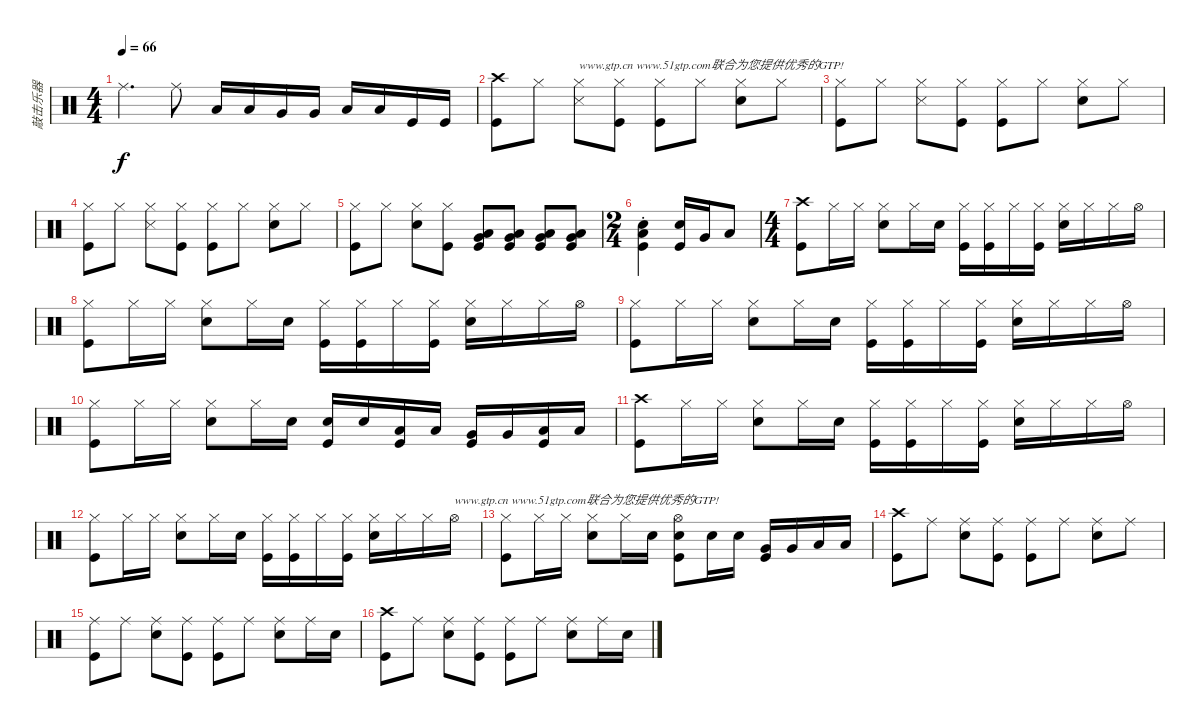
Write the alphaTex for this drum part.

\track ("敲击乐器" "敲击乐器") {instrument percussion}
\staff {score}
\articulation defaults
\ts (4 4)
\tempo 66
\clef neutral
\ks c "Ride (middle)".4{d dy f} "Ride (middle)".8 "Low Tom (hit)".16 "Low Tom (hit)".16 "Very Low Tom (hit)".16 "Very Low Tom (hit)".16 "Low Floor Tom (hit)".16 "Low Floor Tom (hit)".16 "Kick (hit)".16 "Kick (hit)".16
|
("Kick (hit)" "Crash high (hit)").8 "Hi-Hat (closed)".8 ("Snare (side stick) 3" "Hi-Hat (closed)").8{txt "www.gtp.cn www.51gtp.com联合为您提供优秀的GTP!"} ("Kick (hit)" "Hi-Hat (closed)").8 ("Kick (hit)" "Hi-Hat (closed)").8 "Hi-Hat (closed)".8 ("Snare (hit) 2" "Hi-Hat (closed)").8 "Hi-Hat (closed)".8 |
("Kick (hit)" "Hi-Hat (closed)").8 "Hi-Hat (closed)".8 ("Snare (side stick) 3" "Hi-Hat (closed)").8 ("Kick (hit)" "Hi-Hat (closed)").8 ("Kick (hit)" "Hi-Hat (closed)").8 "Hi-Hat (closed)".8 ("Snare (hit) 2" "Hi-Hat (closed)").8 "Hi-Hat (closed)".8 |
("Kick (hit)" "Hi-Hat (closed)").8 "Hi-Hat (closed)".8 ("Snare (side stick) 3" "Hi-Hat (closed)").8 ("Kick (hit)" "Hi-Hat (closed)").8 ("Kick (hit)" "Hi-Hat (closed)").8 "Hi-Hat (closed)".8 ("Snare (hit) 2" "Hi-Hat (closed)").8 "Hi-Hat (closed)".8 |
("Kick (hit)" "Hi-Hat (closed)").8 "Hi-Hat (closed)".8 ("Snare (hit) 2" "Hi-Hat (closed)").8 ("Kick (hit)" "Hi-Hat (closed)").8 ("Very Low Tom (hit)" "Low Floor Tom (hit)" "Kick (hit)").8 ("Very Low Tom (hit)" "Low Floor Tom (hit)" "Kick (hit)").8 ("Very Low Tom (hit)" "Low Floor Tom (hit)" "Kick (hit)").8 ("Very Low Tom (hit)" "Low Floor Tom (hit)" "Kick (hit)").8 |
\ts (2 4)
("Snare (hit) 2"{st} "Low Floor Tom (hit)"{st} "Kick (hit)"{st}).4 ("Snare (hit) 2" "Kick (hit)").16 "Very Low Tom (hit)".16 "Low Floor Tom (hit)".8 |
\ts (4 4)
("Crash high (hit)" "Kick (hit)").8 "Hi-Hat (closed)".16 "Hi-Hat (closed)".16 ("Snare (hit) 2" "Hi-Hat (closed)").8 "Hi-Hat (closed)".16 "Snare (hit) 2".16 ("Kick (hit)" "Hi-Hat (closed)").16 ("Kick (hit)" "Hi-Hat (closed)").16 "Hi-Hat (closed)".16 ("Kick (hit)" "Hi-Hat (closed)").16 ("Snare (hit) 2" "Hi-Hat (closed)").16 "Hi-Hat (closed)".16 "Hi-Hat (closed)".16 "Hi-Hat (open)".16 |
("Hi-Hat (closed)" "Kick (hit)").8 "Hi-Hat (closed)".16 "Hi-Hat (closed)".16 ("Snare (hit) 2" "Hi-Hat (closed)").8 "Hi-Hat (closed)".16 "Snare (hit) 2".16 ("Kick (hit)" "Hi-Hat (closed)").16 ("Kick (hit)" "Hi-Hat (closed)").16 "Hi-Hat (closed)".16 ("Kick (hit)" "Hi-Hat (closed)").16 ("Snare (hit) 2" "Hi-Hat (closed)").16 "Hi-Hat (closed)".16 "Hi-Hat (closed)".16 "Hi-Hat (open)".16 |
("Hi-Hat (closed)" "Kick (hit)").8 "Hi-Hat (closed)".16 "Hi-Hat (closed)".16 ("Snare (hit) 2" "Hi-Hat (closed)").8 "Hi-Hat (closed)".16 "Snare (hit) 2".16 ("Kick (hit)" "Hi-Hat (closed)").16 ("Kick (hit)" "Hi-Hat (closed)").16 "Hi-Hat (closed)".16 ("Kick (hit)" "Hi-Hat (closed)").16 ("Snare (hit) 2" "Hi-Hat (closed)").16 "Hi-Hat (closed)".16 "Hi-Hat (closed)".16 "Hi-Hat (open)".16 |
("Hi-Hat (closed)" "Kick (hit)").8 "Hi-Hat (closed)".16 "Hi-Hat (closed)".16 ("Snare (hit) 2" "Hi-Hat (closed)").8 "Hi-Hat (closed)".16 "Snare (hit) 2".16 ("Snare (hit) 2" "Kick (hit)").16 "Snare (hit) 2".16 ("Low Tom (hit)" "Kick (hit)").16 "Low Tom (hit)".16 ("Very Low Tom (hit)" "Kick (hit)").16 "Very Low Tom (hit)".16 ("Low Floor Tom (hit)" "Kick (hit)").16 "Low Floor Tom (hit)".16 |
("Crash high (hit)" "Kick (hit)").8 "Hi-Hat (closed)".16 "Hi-Hat (closed)".16 ("Snare (hit) 2" "Hi-Hat (closed)").8 "Hi-Hat (closed)".16 "Snare (hit) 2".16 ("Kick (hit)" "Hi-Hat (closed)").16 ("Kick (hit)" "Hi-Hat (closed)").16 "Hi-Hat (closed)".16 ("Kick (hit)" "Hi-Hat (closed)").16 ("Snare (hit) 2" "Hi-Hat (closed)").16 "Hi-Hat (closed)".16 "Hi-Hat (closed)".16 "Hi-Hat (open)".16 |
("Hi-Hat (closed)" "Kick (hit)").8 "Hi-Hat (closed)".16 "Hi-Hat (closed)".16 ("Snare (hit) 2" "Hi-Hat (closed)").8 "Hi-Hat (closed)".16 "Snare (hit) 2".16 ("Kick (hit)" "Hi-Hat (closed)").16 ("Kick (hit)" "Hi-Hat (closed)").16 "Hi-Hat (closed)".16 ("Kick (hit)" "Hi-Hat (closed)").16 ("Snare (hit) 2" "Hi-Hat (closed)").16 "Hi-Hat (closed)".16 "Hi-Hat (closed)".16 "Hi-Hat (open)".16{txt "www.gtp.cn www.51gtp.com联合为您提供优秀的GTP!"} |
("Hi-Hat (closed)" "Kick (hit)").8 "Hi-Hat (closed)".16 "Hi-Hat (closed)".16 ("Snare (hit) 2" "Hi-Hat (closed)").8 "Hi-Hat (closed)".16 "Snare (hit) 2".16 ("Snare (hit) 2" "Kick (hit)" "Hi-Hat (open)").8 "Snare (hit) 2".16 "Snare (hit) 2".16 ("Very Low Tom (hit)" "Kick (hit)").16 "Very Low Tom (hit)".16 "Low Floor Tom (hit)".16 "Low Floor Tom (hit)".16 |
("Kick (hit)" "Crash high (hit)").8 "Ride (middle)".8 ("Snare (hit) 2" "Ride (middle)").8 ("Kick (hit)" "Ride (middle)").8 ("Kick (hit)" "Ride (middle)").8 "Ride (middle)".8 ("Snare (hit) 2" "Ride (middle)").8 "Ride (middle)".8 |
("Kick (hit)" "Ride (middle)").8 "Ride (middle)".8 ("Snare (hit) 2" "Ride (middle)").8 ("Kick (hit)" "Ride (middle)").8 ("Kick (hit)" "Ride (middle)").8 "Ride (middle)".8 ("Snare (hit) 2" "Ride (middle)").8 "Ride (middle)".16 "Snare (hit) 2".16 |
("Kick (hit)" "Crash high (hit)").8 "Ride (middle)".8 ("Snare (hit) 2" "Ride (middle)").8 ("Kick (hit)" "Ride (middle)").8 ("Kick (hit)" "Ride (middle)").8 "Ride (middle)".8 ("Snare (hit) 2" "Ride (middle)").8 "Ride (middle)".16 "Snare (hit) 2".16
